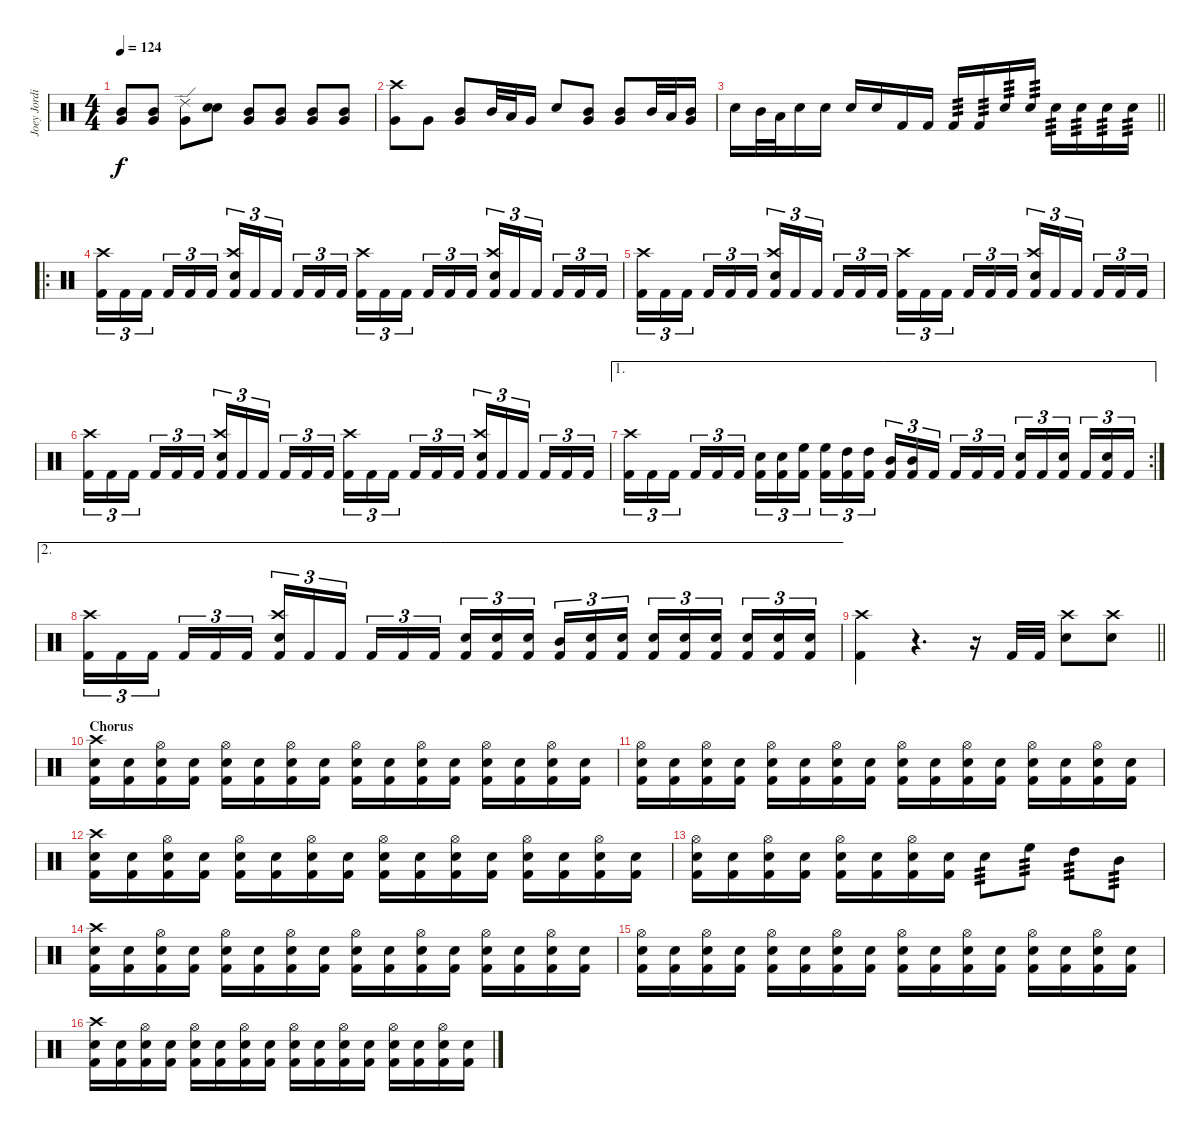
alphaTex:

\track ("Joey Jordison" "Joey Jordi") {instrument percussion}
\staff
\articulation defaults
\ts (4 4)
\tempo 124
\clef neutral
\ks c
("Mid Tom (hit)" "Very Low Tom (hit)").8{dy f} ("Mid Tom (hit)" "Very Low Tom (hit)").8 ("Ride (edge) 2" "Very Low Tom (hit)").8 ("Electric Snare (hit)" "Electric Snare (hit)").8 ("Mid Tom (hit)" "Very Low Tom (hit)").8 ("Mid Tom (hit)" "Very Low Tom (hit)").8 ("Mid Tom (hit)" "Very Low Tom (hit)").8 ("Mid Tom (hit)" "Very Low Tom (hit)").8 |
("Crash high (hit)" "Very Low Tom (hit)").8 "Very Low Tom (hit)".8 ("Mid Tom (hit)" "Very Low Tom (hit)").8 "Mid Tom (hit)".32 "Low Tom (hit)".32 "Very Low Tom (hit)".16 "Electric Snare (hit)".8 ("Mid Tom (hit)" "Very Low Tom (hit)").8 ("Mid Tom (hit)" "Very Low Tom (hit)").8 "Mid Tom (hit)".32 "Low Tom (hit)".32 ("Mid Tom (hit)" "Very Low Tom (hit)").16 |
\barLineRight lightlight "Electric Snare (hit)".16 "Mid Tom (hit)".32 "Low Tom (hit)".32 "Electric Snare (hit)".16 "Electric Snare (hit)".16 "Electric Snare (hit)".16 "Electric Snare (hit)".16 "Kick (hit) 2".16 "Kick (hit) 2".16 "Kick (hit) 2".16{tp 3} "Kick (hit) 2".16{tp 3} "Electric Snare (hit)".16{tp 3} "Electric Snare (hit)".16{tp 3} "Electric Snare (hit)".16{tp 3} "Electric Snare (hit)".16{tp 3} "Electric Snare (hit)".16{tp 3} "Electric Snare (hit)".16{tp 3}
|
\ro
\section ("" "")
("Crash high (hit)" "Kick (hit) 2").16{tu (3 2)} "Kick (hit) 2".16{tu (3 2)} "Kick (hit) 2".16{tu (3 2) beam splitsecondary} "Kick (hit) 2".16{tu (3 2)} "Kick (hit) 2".16{tu (3 2)} "Kick (hit) 2".16{tu (3 2)} ("Crash high (hit)" "Electric Snare (hit)" "Kick (hit) 2").16{tu (3 2)} "Kick (hit) 2".16{tu (3 2)} "Kick (hit) 2".16{tu (3 2) beam splitsecondary} "Kick (hit) 2".16{tu (3 2)} "Kick (hit) 2".16{tu (3 2)} "Kick (hit) 2".16{tu (3 2)} ("Crash high (hit)" "Kick (hit) 2").16{tu (3 2)} "Kick (hit) 2".16{tu (3 2)} "Kick (hit) 2".16{tu (3 2) beam splitsecondary} "Kick (hit) 2".16{tu (3 2)} "Kick (hit) 2".16{tu (3 2)} "Kick (hit) 2".16{tu (3 2)} ("Crash high (hit)" "Electric Snare (hit)" "Kick (hit) 2").16{tu (3 2)} "Kick (hit) 2".16{tu (3 2)} "Kick (hit) 2".16{tu (3 2) beam splitsecondary} "Kick (hit) 2".16{tu (3 2)} "Kick (hit) 2".16{tu (3 2)} "Kick (hit) 2".16{tu (3 2)} |
("Crash high (hit)" "Kick (hit) 2").16{tu (3 2)} "Kick (hit) 2".16{tu (3 2)} "Kick (hit) 2".16{tu (3 2) beam splitsecondary} "Kick (hit) 2".16{tu (3 2)} "Kick (hit) 2".16{tu (3 2)} "Kick (hit) 2".16{tu (3 2)} ("Crash high (hit)" "Electric Snare (hit)" "Kick (hit) 2").16{tu (3 2)} "Kick (hit) 2".16{tu (3 2)} "Kick (hit) 2".16{tu (3 2) beam splitsecondary} "Kick (hit) 2".16{tu (3 2)} "Kick (hit) 2".16{tu (3 2)} "Kick (hit) 2".16{tu (3 2)} ("Crash high (hit)" "Kick (hit) 2").16{tu (3 2)} "Kick (hit) 2".16{tu (3 2)} "Kick (hit) 2".16{tu (3 2) beam splitsecondary} "Kick (hit) 2".16{tu (3 2)} "Kick (hit) 2".16{tu (3 2)} "Kick (hit) 2".16{tu (3 2)} ("Crash high (hit)" "Electric Snare (hit)" "Kick (hit) 2").16{tu (3 2)} "Kick (hit) 2".16{tu (3 2)} "Kick (hit) 2".16{tu (3 2) beam splitsecondary} "Kick (hit) 2".16{tu (3 2)} "Kick (hit) 2".16{tu (3 2)} "Kick (hit) 2".16{tu (3 2)} |
("Crash high (hit)" "Kick (hit) 2").16{tu (3 2)} "Kick (hit) 2".16{tu (3 2)} "Kick (hit) 2".16{tu (3 2) beam splitsecondary} "Kick (hit) 2".16{tu (3 2)} "Kick (hit) 2".16{tu (3 2)} "Kick (hit) 2".16{tu (3 2)} ("Crash high (hit)" "Electric Snare (hit)" "Kick (hit) 2").16{tu (3 2)} "Kick (hit) 2".16{tu (3 2)} "Kick (hit) 2".16{tu (3 2) beam splitsecondary} "Kick (hit) 2".16{tu (3 2)} "Kick (hit) 2".16{tu (3 2)} "Kick (hit) 2".16{tu (3 2)} ("Crash high (hit)" "Kick (hit) 2").16{tu (3 2)} "Kick (hit) 2".16{tu (3 2)} "Kick (hit) 2".16{tu (3 2) beam splitsecondary} "Kick (hit) 2".16{tu (3 2)} "Kick (hit) 2".16{tu (3 2)} "Kick (hit) 2".16{tu (3 2)} ("Crash high (hit)" "Electric Snare (hit)" "Kick (hit) 2").16{tu (3 2)} "Kick (hit) 2".16{tu (3 2)} "Kick (hit) 2".16{tu (3 2) beam splitsecondary} "Kick (hit) 2".16{tu (3 2)} "Kick (hit) 2".16{tu (3 2)} "Kick (hit) 2".16{tu (3 2)} |
\ae 1
\rc 2
("Crash high (hit)" "Kick (hit) 2").16{tu (3 2)} "Kick (hit) 2".16{tu (3 2)} "Kick (hit) 2".16{tu (3 2) beam splitsecondary} "Kick (hit) 2".16{tu (3 2)} "Kick (hit) 2".16{tu (3 2)} "Kick (hit) 2".16{tu (3 2)} ("Electric Snare (hit)" "Kick (hit) 2").16{tu (3 2)} ("Electric Snare (hit)" "Kick (hit) 2").16{tu (3 2)} ("High Floor Tom (hit)" "Kick (hit) 2").16{tu (3 2) beam splitsecondary} ("High Floor Tom (hit)" "Kick (hit) 2").16{tu (3 2)} ("High Tom (hit)" "Kick (hit) 2").16{tu (3 2)} ("High Tom (hit)" "Kick (hit) 2").16{tu (3 2)} ("Mid Tom (hit)" "Kick (hit) 2").16{tu (3 2)} ("Mid Tom (hit)" "Kick (hit) 2").16{tu (3 2)} "Kick (hit) 2".16{tu (3 2) beam splitsecondary} "Kick (hit) 2".16{tu (3 2)} "Kick (hit) 2".16{tu (3 2)} "Kick (hit) 2".16{tu (3 2)} ("Electric Snare (hit)" "Kick (hit) 2").16{tu (3 2)} "Kick (hit) 2".16{tu (3 2)} ("Electric Snare (hit)" "Kick (hit) 2").16{tu (3 2) beam splitsecondary} "Kick (hit) 2".16{tu (3 2)} ("Electric Snare (hit)" "Kick (hit) 2").16{tu (3 2)} "Kick (hit) 2".16{tu (3 2)} |
\ae 2
("Crash high (hit)" "Kick (hit) 2").16{tu (3 2)} "Kick (hit) 2".16{tu (3 2)} "Kick (hit) 2".16{tu (3 2) beam splitsecondary} "Kick (hit) 2".16{tu (3 2)} "Kick (hit) 2".16{tu (3 2)} "Kick (hit) 2".16{tu (3 2)} ("Crash high (hit)" "Electric Snare (hit)" "Kick (hit) 2").16{tu (3 2)} "Kick (hit) 2".16{tu (3 2)} "Kick (hit) 2".16{tu (3 2) beam splitsecondary} "Kick (hit) 2".16{tu (3 2)} "Kick (hit) 2".16{tu (3 2)} "Kick (hit) 2".16{tu (3 2)} ("Electric Snare (hit)" "Kick (hit) 2").16{tu (3 2)} ("Electric Snare (hit)" "Kick (hit) 2").16{tu (3 2)} ("Electric Snare (hit)" "Kick (hit) 2").16{tu (3 2) beam splitsecondary} ("Mid Tom (hit)" "Kick (hit) 2").16{tu (3 2)} ("Electric Snare (hit)" "Kick (hit) 2").16{tu (3 2)} ("Electric Snare (hit)" "Kick (hit) 2").16{tu (3 2)} ("Electric Snare (hit)" "Kick (hit) 2").16{tu (3 2)} ("Electric Snare (hit)" "Kick (hit) 2").16{tu (3 2)} ("Electric Snare (hit)" "Kick (hit) 2").16{tu (3 2) beam splitsecondary} ("Electric Snare (hit)" "Kick (hit) 2").16{tu (3 2)} ("Electric Snare (hit)" "Kick (hit) 2").16{tu (3 2)} ("Electric Snare (hit)" "Kick (hit) 2").16{tu (3 2)} |
\barLineRight lightlight
("Kick (hit) 2" "Crash high (hit)").4 r.4{d} r.16 "Kick (hit) 2".32 "Kick (hit) 2".32 ("Electric Snare (hit)" "Crash high (hit)").8 ("Electric Snare (hit)" "Crash high (hit)").8 |
\section ("" "Chorus")
("Crash high (hit)" "Electric Snare (hit)" "Kick (hit) 2").16 ("Electric Snare (hit)" "Kick (hit) 2").16 ("Hi-Hat (open)" "Electric Snare (hit)" "Kick (hit) 2").16 ("Electric Snare (hit)" "Kick (hit) 2").16 ("Hi-Hat (open)" "Electric Snare (hit)" "Kick (hit) 2").16 ("Electric Snare (hit)" "Kick (hit) 2").16 ("Hi-Hat (open)" "Electric Snare (hit)" "Kick (hit) 2").16 ("Electric Snare (hit)" "Kick (hit) 2").16 ("Hi-Hat (open)" "Electric Snare (hit)" "Kick (hit) 2").16 ("Electric Snare (hit)" "Kick (hit) 2").16 ("Hi-Hat (open)" "Electric Snare (hit)" "Kick (hit) 2").16 ("Electric Snare (hit)" "Kick (hit) 2").16 ("Hi-Hat (open)" "Electric Snare (hit)" "Kick (hit) 2").16 ("Electric Snare (hit)" "Kick (hit) 2").16 ("Hi-Hat (open)" "Electric Snare (hit)" "Kick (hit) 2").16 ("Electric Snare (hit)" "Kick (hit) 2").16 |
("Hi-Hat (open)" "Electric Snare (hit)" "Kick (hit) 2").16 ("Electric Snare (hit)" "Kick (hit) 2").16 ("Hi-Hat (open)" "Electric Snare (hit)" "Kick (hit) 2").16 ("Electric Snare (hit)" "Kick (hit) 2").16 ("Hi-Hat (open)" "Electric Snare (hit)" "Kick (hit) 2").16 ("Electric Snare (hit)" "Kick (hit) 2").16 ("Hi-Hat (open)" "Electric Snare (hit)" "Kick (hit) 2").16 ("Electric Snare (hit)" "Kick (hit) 2").16 ("Hi-Hat (open)" "Electric Snare (hit)" "Kick (hit) 2").16 ("Electric Snare (hit)" "Kick (hit) 2").16 ("Hi-Hat (open)" "Electric Snare (hit)" "Kick (hit) 2").16 ("Electric Snare (hit)" "Kick (hit) 2").16 ("Hi-Hat (open)" "Electric Snare (hit)" "Kick (hit) 2").16 ("Electric Snare (hit)" "Kick (hit) 2").16 ("Hi-Hat (open)" "Electric Snare (hit)" "Kick (hit) 2").16 ("Electric Snare (hit)" "Kick (hit) 2").16 |
("Crash high (hit)" "Electric Snare (hit)" "Kick (hit) 2").16 ("Electric Snare (hit)" "Kick (hit) 2").16 ("Hi-Hat (open)" "Electric Snare (hit)" "Kick (hit) 2").16 ("Electric Snare (hit)" "Kick (hit) 2").16 ("Hi-Hat (open)" "Electric Snare (hit)" "Kick (hit) 2").16 ("Electric Snare (hit)" "Kick (hit) 2").16 ("Hi-Hat (open)" "Electric Snare (hit)" "Kick (hit) 2").16 ("Electric Snare (hit)" "Kick (hit) 2").16 ("Hi-Hat (open)" "Electric Snare (hit)" "Kick (hit) 2").16 ("Electric Snare (hit)" "Kick (hit) 2").16 ("Hi-Hat (open)" "Electric Snare (hit)" "Kick (hit) 2").16 ("Electric Snare (hit)" "Kick (hit) 2").16 ("Hi-Hat (open)" "Electric Snare (hit)" "Kick (hit) 2").16 ("Electric Snare (hit)" "Kick (hit) 2").16 ("Hi-Hat (open)" "Electric Snare (hit)" "Kick (hit) 2").16 ("Electric Snare (hit)" "Kick (hit) 2").16 |
("Hi-Hat (open)" "Electric Snare (hit)" "Kick (hit) 2").16 ("Electric Snare (hit)" "Kick (hit) 2").16 ("Hi-Hat (open)" "Electric Snare (hit)" "Kick (hit) 2").16 ("Electric Snare (hit)" "Kick (hit) 2").16 ("Hi-Hat (open)" "Electric Snare (hit)" "Kick (hit) 2").16 ("Electric Snare (hit)" "Kick (hit) 2").16 ("Hi-Hat (open)" "Electric Snare (hit)" "Kick (hit) 2").16 ("Electric Snare (hit)" "Kick (hit) 2").16 "Electric Snare (hit)".8{tp 3} "High Floor Tom (hit)".8{tp 3} "High Tom (hit)".8{tp 3} "Mid Tom (hit)".8{tp 3} |
("Crash high (hit)" "Electric Snare (hit)" "Kick (hit) 2").16 ("Electric Snare (hit)" "Kick (hit) 2").16 ("Hi-Hat (open)" "Electric Snare (hit)" "Kick (hit) 2").16 ("Electric Snare (hit)" "Kick (hit) 2").16 ("Hi-Hat (open)" "Electric Snare (hit)" "Kick (hit) 2").16 ("Electric Snare (hit)" "Kick (hit) 2").16 ("Hi-Hat (open)" "Electric Snare (hit)" "Kick (hit) 2").16 ("Electric Snare (hit)" "Kick (hit) 2").16 ("Hi-Hat (open)" "Electric Snare (hit)" "Kick (hit) 2").16 ("Electric Snare (hit)" "Kick (hit) 2").16 ("Hi-Hat (open)" "Electric Snare (hit)" "Kick (hit) 2").16 ("Electric Snare (hit)" "Kick (hit) 2").16 ("Hi-Hat (open)" "Electric Snare (hit)" "Kick (hit) 2").16 ("Electric Snare (hit)" "Kick (hit) 2").16 ("Hi-Hat (open)" "Electric Snare (hit)" "Kick (hit) 2").16 ("Electric Snare (hit)" "Kick (hit) 2").16 |
("Hi-Hat (open)" "Electric Snare (hit)" "Kick (hit) 2").16 ("Electric Snare (hit)" "Kick (hit) 2").16 ("Hi-Hat (open)" "Electric Snare (hit)" "Kick (hit) 2").16 ("Electric Snare (hit)" "Kick (hit) 2").16 ("Hi-Hat (open)" "Electric Snare (hit)" "Kick (hit) 2").16 ("Electric Snare (hit)" "Kick (hit) 2").16 ("Hi-Hat (open)" "Electric Snare (hit)" "Kick (hit) 2").16 ("Electric Snare (hit)" "Kick (hit) 2").16 ("Hi-Hat (open)" "Electric Snare (hit)" "Kick (hit) 2").16 ("Electric Snare (hit)" "Kick (hit) 2").16 ("Hi-Hat (open)" "Electric Snare (hit)" "Kick (hit) 2").16 ("Electric Snare (hit)" "Kick (hit) 2").16 ("Hi-Hat (open)" "Electric Snare (hit)" "Kick (hit) 2").16 ("Electric Snare (hit)" "Kick (hit) 2").16 ("Hi-Hat (open)" "Electric Snare (hit)" "Kick (hit) 2").16 ("Electric Snare (hit)" "Kick (hit) 2").16 |
("Crash high (hit)" "Electric Snare (hit)" "Kick (hit) 2").16 ("Electric Snare (hit)" "Kick (hit) 2").16 ("Hi-Hat (open)" "Electric Snare (hit)" "Kick (hit) 2").16 ("Electric Snare (hit)" "Kick (hit) 2").16 ("Hi-Hat (open)" "Electric Snare (hit)" "Kick (hit) 2").16 ("Electric Snare (hit)" "Kick (hit) 2").16 ("Hi-Hat (open)" "Electric Snare (hit)" "Kick (hit) 2").16 ("Electric Snare (hit)" "Kick (hit) 2").16 ("Hi-Hat (open)" "Electric Snare (hit)" "Kick (hit) 2").16 ("Electric Snare (hit)" "Kick (hit) 2").16 ("Hi-Hat (open)" "Electric Snare (hit)" "Kick (hit) 2").16 ("Electric Snare (hit)" "Kick (hit) 2").16 ("Hi-Hat (open)" "Electric Snare (hit)" "Kick (hit) 2").16 ("Electric Snare (hit)" "Kick (hit) 2").16 ("Hi-Hat (open)" "Electric Snare (hit)" "Kick (hit) 2").16 ("Electric Snare (hit)" "Kick (hit) 2").16
